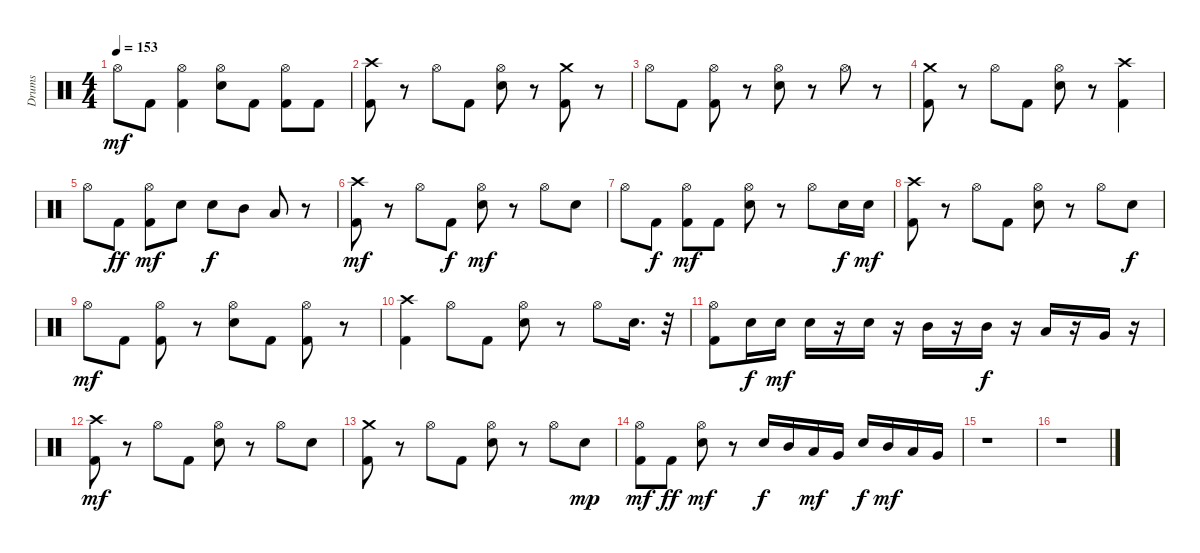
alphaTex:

\track ("Drums" "Drums") {instrument percussion}
\staff {score}
\articulation defaults
\ts (4 4)
\tempo 153
\clef neutral
\ks c "Hi-Hat (open)".8{dy mf} "Kick (hit) 2".8
("Kick (hit) 2" "Hi-Hat (open)").4 ("Electric Snare (hit)" "Hi-Hat (open)").8 "Kick (hit) 2".8 ("Kick (hit) 2" "Hi-Hat (open)").8 "Kick (hit) 2".8 |
("Kick (hit) 2" "Crash high (hit)").8 r.8 "Hi-Hat (open)".8 "Kick (hit) 2".8 ("Electric Snare (hit)" "Hi-Hat (open)").8 r.8 ("Kick (hit) 2" "Crash medium (hit)").8 r.8 |
"Hi-Hat (open)".8 "Kick (hit) 2".8 ("Kick (hit) 2" "Hi-Hat (open)").8 r.8 ("Electric Snare (hit)" "Hi-Hat (open)").8 r.8 "Hi-Hat (open)".8 r.8 |
("Kick (hit) 2" "Crash medium (hit)").8 r.8 "Hi-Hat (open)".8 "Kick (hit) 2".8 ("Electric Snare (hit)" "Hi-Hat (open)").8 r.8 ("Kick (hit) 2" "Crash high (hit)").4 |
"Hi-Hat (open)".8 "Kick (hit) 2".8{dy ff} ("Kick (hit) 2" "Hi-Hat (open)").8{dy mf} "Electric Snare (hit)".8 "Electric Snare (hit)".8{dy f} "Mid Tom (hit)".8 "Low Tom (hit)".8 r.8 |
("Kick (hit) 2" "Crash high (hit)").8{dy mf} r.8 "Hi-Hat (open)".8 "Kick (hit) 2".8{dy f} ("Electric Snare (hit)" "Hi-Hat (open)").8{dy mf} r.8 "Hi-Hat (open)".8 "Electric Snare (hit)".8 |
"Hi-Hat (open)".8 "Kick (hit) 2".8{dy f} ("Kick (hit) 2" "Hi-Hat (open)").8{dy mf} "Kick (hit) 2".8 ("Electric Snare (hit)" "Hi-Hat (open)").8 r.8 "Hi-Hat (open)".8 "Electric Snare (hit)".16{dy f} "Electric Snare (hit)".16{dy mf} |
("Kick (hit) 2" "Crash high (hit)").8 r.8 "Hi-Hat (open)".8 "Kick (hit) 2".8 ("Electric Snare (hit)" "Hi-Hat (open)").8 r.8 "Hi-Hat (open)".8 "Electric Snare (hit)".8{dy f} |
"Hi-Hat (open)".8{dy mf} "Kick (hit) 2".8 ("Kick (hit) 2" "Hi-Hat (open)").8 r.8 ("Electric Snare (hit)" "Hi-Hat (open)").8 "Kick (hit) 2".8 ("Kick (hit) 2" "Hi-Hat (open)").8 r.8 |
("Kick (hit) 2" "Crash high (hit)").4 "Hi-Hat (open)".8 "Kick (hit) 2".8 ("Electric Snare (hit)" "Hi-Hat (open)").8 r.8 "Hi-Hat (open)".8 "Electric Snare (hit)".16{d} r.32 |
("Kick (hit) 2" "Hi-Hat (open)").8 "Electric Snare (hit)".16{dy f} "Electric Snare (hit)".16{dy mf} "Electric Snare (hit)".16 r.16 "Electric Snare (hit)".16 r.16 "Mid Tom (hit)".16 r.16 "Mid Tom (hit)".16{dy f} r.16 "Low Tom (hit)".16 r.16 "Very Low Tom (hit)".16 r.16 |
("Kick (hit) 2" "Crash high (hit)").8{dy mf} r.8 "Hi-Hat (open)".8 "Kick (hit) 2".8 ("Electric Snare (hit)" "Hi-Hat (open)").8 r.8 "Hi-Hat (open)".8 "Electric Snare (hit)".8 |
("Kick (hit) 2" "Crash medium (hit)").8 r.8 "Hi-Hat (open)".8 "Kick (hit) 2".8 ("Electric Snare (hit)" "Hi-Hat (open)").8 r.8 "Hi-Hat (open)".8 "Electric Snare (hit)".8{dy mp} |
("Kick (hit) 2" "Hi-Hat (open)").8{dy mf} "Kick (hit) 2".8{dy ff} ("Electric Snare (hit)" "Hi-Hat (open)").8{dy mf} r.8 "Electric Snare (hit)".16{dy f} "Mid Tom (hit)".16 "Low Tom (hit)".16{dy mf} "Very Low Tom (hit)".16 "Electric Snare (hit)".16{dy f} "Mid Tom (hit)".16{dy mf} "Low Tom (hit)".16 "Very Low Tom (hit)".16 |
r.1 |
r.1
